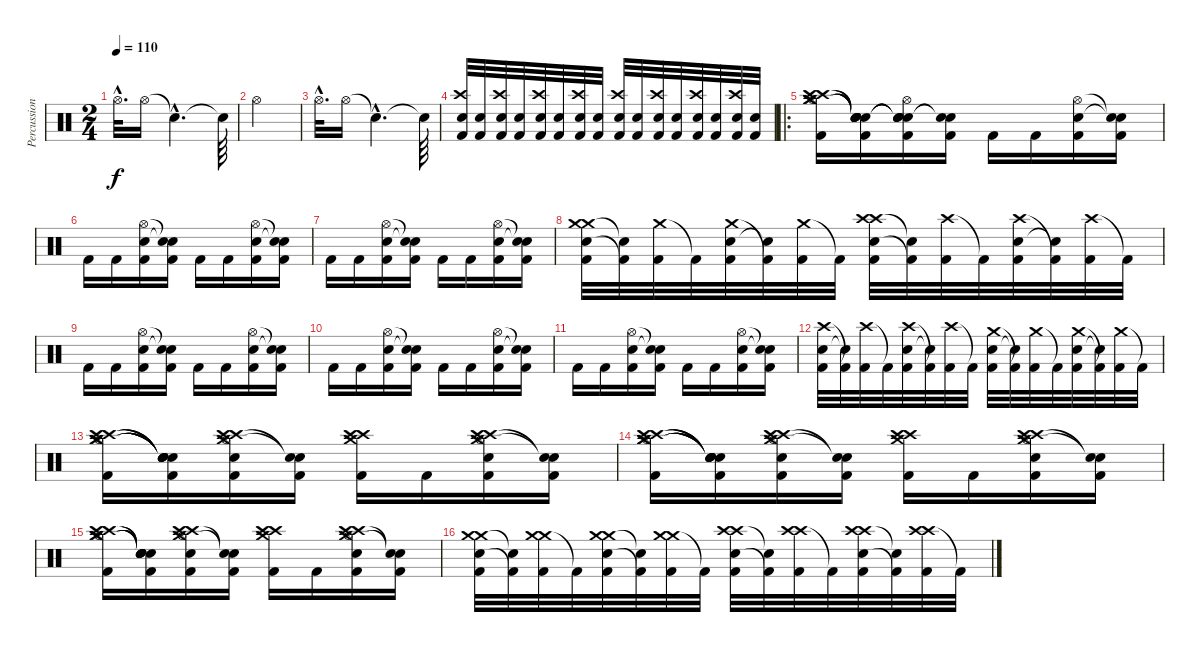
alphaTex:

\track ("Percussion" "Percussion") {instrument percussion}
\staff {score}
\articulation defaults
\ts (2 4)
\tempo 110
\clef neutral
\ks c "Hi-Hat (open)"{hac}.32{d dy f} "Hi-Hat (open)".16 "Snare (hit)"{hac t}.4{d} "Snare (hit)"{t}.64
|
"Hi-Hat (open)".2 |
"Hi-Hat (open)"{hac}.32{d} "Hi-Hat (open)".16 "Snare (hit)"{hac t}.4{d} "Snare (hit)"{t}.64 |
("Snare (hit) 2" "Crash high (hit)" "Kick (hit) 2").32 ("Snare (hit) 2" "Kick (hit) 2").32 ("Snare (hit) 2" "Crash high (hit)" "Kick (hit) 2").32 ("Snare (hit) 2" "Kick (hit) 2").32 ("Snare (hit) 2" "Crash high (hit)" "Kick (hit) 2").32 ("Snare (hit) 2" "Kick (hit) 2").32 ("Snare (hit) 2" "Crash high (hit)" "Kick (hit) 2").32 ("Snare (hit) 2" "Kick (hit) 2").32 ("Snare (hit) 2" "Crash high (hit)" "Kick (hit) 2").32 ("Snare (hit) 2" "Kick (hit) 2").32 ("Snare (hit) 2" "Crash high (hit)" "Kick (hit) 2").32 ("Snare (hit) 2" "Kick (hit) 2").32 ("Snare (hit) 2" "Crash high (hit)" "Kick (hit) 2").32 ("Snare (hit) 2" "Kick (hit) 2").32 ("Snare (hit) 2" "Crash high (hit)" "Kick (hit) 2").32 ("Snare (hit) 2" "Kick (hit) 2").32 |
\ro
("Crash high (hit)" "Crash medium (hit)" "Crash high (hit)" "Crash medium (hit)" "Hi-Hat (open)" "Kick (hit) 2").16 ("Snare (hit)"{t} "Snare (hit)"{t} "Snare (hit)"{t} "Snare (hit)"{t} "Snare (hit)"{t} "Kick (hit) 2").16 ("Snare (hit)"{t} "Snare (hit)"{t} "Snare (hit)"{t} "Hi-Hat (open)" "Snare (hit) 2" "Kick (hit) 2").16 ("Snare (hit)"{t} "Snare (hit)"{t} "Kick (hit) 2").16 "Kick (hit) 2".16 "Kick (hit) 2".16 ("Hi-Hat (open)" "Snare (hit) 2" "Kick (hit) 2").16 ("Snare (hit)"{t} "Snare (hit)"{t} "Kick (hit) 2").16 |
"Kick (hit) 2".16 "Kick (hit) 2".16 ("Hi-Hat (open)" "Snare (hit) 2" "Kick (hit) 2").16 ("Snare (hit)"{t} "Snare (hit)"{t} "Kick (hit) 2").16 "Kick (hit) 2".16 "Kick (hit) 2".16 ("Hi-Hat (open)" "Snare (hit) 2" "Kick (hit) 2").16 ("Snare (hit)"{t} "Snare (hit)"{t} "Kick (hit) 2").16 |
"Kick (hit) 2".16 "Kick (hit) 2".16 ("Hi-Hat (open)" "Snare (hit) 2" "Kick (hit) 2").16 ("Snare (hit)"{t} "Snare (hit)"{t} "Kick (hit) 2").16 "Kick (hit) 2".16 "Kick (hit) 2".16 ("Hi-Hat (open)" "Snare (hit) 2" "Kick (hit) 2").16 ("Snare (hit)"{t} "Snare (hit)"{t} "Kick (hit) 2").16 |
("Crash medium (hit)" "Snare (hit) 2" "Crash medium (hit)" "Kick (hit) 2").32 ("Snare (hit) 2"{t} "Kick (hit) 2"{t}).32 ("Crash medium (hit)" "Kick (hit) 2").32 "Kick (hit) 2"{t}.32 ("Snare (hit) 2" "Crash medium (hit)" "Kick (hit) 2").32 ("Snare (hit) 2"{t} "Kick (hit) 2"{t}).32 ("Crash medium (hit)" "Kick (hit) 2").32 "Kick (hit) 2"{t}.32 ("Crash high (hit)" "Snare (hit) 2" "Crash high (hit)" "Kick (hit) 2").32 ("Snare (hit) 2"{t} "Kick (hit) 2"{t}).32 ("Crash high (hit)" "Kick (hit) 2").32 "Kick (hit) 2"{t}.32 ("Snare (hit) 2" "Crash high (hit)" "Kick (hit) 2").32 ("Snare (hit) 2"{t} "Kick (hit) 2"{t}).32 ("Crash high (hit)" "Kick (hit) 2").32 "Kick (hit) 2"{t}.32 |
"Kick (hit) 2".16 "Kick (hit) 2".16 ("Hi-Hat (open)" "Snare (hit) 2" "Kick (hit) 2").16 ("Snare (hit)"{t} "Snare (hit)"{t} "Kick (hit) 2").16 "Kick (hit) 2".16 "Kick (hit) 2".16 ("Hi-Hat (open)" "Snare (hit) 2" "Kick (hit) 2").16 ("Snare (hit)"{t} "Snare (hit)"{t} "Kick (hit) 2").16 |
"Kick (hit) 2".16 "Kick (hit) 2".16 ("Hi-Hat (open)" "Snare (hit) 2" "Kick (hit) 2").16 ("Snare (hit)"{t} "Snare (hit)"{t} "Kick (hit) 2").16 "Kick (hit) 2".16 "Kick (hit) 2".16 ("Hi-Hat (open)" "Snare (hit) 2" "Kick (hit) 2").16 ("Snare (hit)"{t} "Snare (hit)"{t} "Kick (hit) 2").16 |
"Kick (hit) 2".16 "Kick (hit) 2".16 ("Hi-Hat (open)" "Snare (hit) 2" "Kick (hit) 2").16 ("Snare (hit)"{t} "Snare (hit)"{t} "Kick (hit) 2").16 "Kick (hit) 2".16 "Kick (hit) 2".16 ("Hi-Hat (open)" "Snare (hit) 2" "Kick (hit) 2").16 ("Snare (hit)"{t} "Snare (hit)"{t} "Kick (hit) 2").16 |
("Snare (hit) 2" "Crash high (hit)" "Kick (hit) 2").32 ("Snare (hit) 2"{t} "Kick (hit) 2"{t}).32 ("Crash high (hit)" "Kick (hit) 2").32 "Kick (hit) 2"{t}.32 ("Snare (hit) 2" "Crash high (hit)" "Kick (hit) 2").32 ("Snare (hit) 2"{t} "Kick (hit) 2"{t}).32 ("Crash high (hit)" "Kick (hit) 2").32 "Kick (hit) 2"{t}.32 ("Snare (hit) 2" "Crash medium (hit)" "Kick (hit) 2").32 ("Snare (hit) 2"{t} "Kick (hit) 2"{t}).32 ("Crash medium (hit)" "Kick (hit) 2").32 "Kick (hit) 2"{t}.32 ("Snare (hit) 2" "Crash medium (hit)" "Kick (hit) 2").32 ("Snare (hit) 2"{t} "Kick (hit) 2"{t}).32 ("Crash medium (hit)" "Kick (hit) 2").32 "Kick (hit) 2"{t}.32 |
("Crash high (hit)" "Crash medium (hit)" "Crash high (hit)" "Crash medium (hit)" "Hi-Hat (open)" "Kick (hit) 2").16 ("Snare (hit)"{t} "Snare (hit)"{t} "Snare (hit)"{t} "Snare (hit)"{t} "Snare (hit)"{t} "Kick (hit) 2").16 ("Crash high (hit)" "Crash medium (hit)" "Crash high (hit)" "Hi-Hat (open)" "Snare (hit) 2" "Kick (hit) 2").16 ("Snare (hit)"{t} "Snare (hit)"{t} "Kick (hit) 2").16 ("Crash high (hit)" "Crash medium (hit)" "Crash high (hit)" "Kick (hit) 2").16 "Kick (hit) 2".16 ("Crash high (hit)" "Crash medium (hit)" "Crash high (hit)" "Hi-Hat (open)" "Snare (hit) 2" "Kick (hit) 2").16 ("Snare (hit)"{t} "Snare (hit)"{t} "Kick (hit) 2").16 |
("Crash high (hit)" "Crash medium (hit)" "Crash high (hit)" "Crash medium (hit)" "Hi-Hat (open)" "Kick (hit) 2").16 ("Snare (hit)"{t} "Snare (hit)"{t} "Snare (hit)"{t} "Snare (hit)"{t} "Snare (hit)"{t} "Kick (hit) 2").16 ("Crash high (hit)" "Crash medium (hit)" "Crash high (hit)" "Hi-Hat (open)" "Snare (hit) 2" "Kick (hit) 2").16 ("Snare (hit)"{t} "Snare (hit)"{t} "Kick (hit) 2").16 ("Crash high (hit)" "Crash medium (hit)" "Crash high (hit)" "Kick (hit) 2").16 "Kick (hit) 2".16 ("Crash high (hit)" "Crash medium (hit)" "Crash high (hit)" "Hi-Hat (open)" "Snare (hit) 2" "Kick (hit) 2").16 ("Snare (hit)"{t} "Snare (hit)"{t} "Kick (hit) 2").16 |
("Crash high (hit)" "Crash medium (hit)" "Crash high (hit)" "Crash medium (hit)" "Hi-Hat (open)" "Kick (hit) 2").16 ("Snare (hit)"{t} "Snare (hit)"{t} "Snare (hit)"{t} "Snare (hit)"{t} "Snare (hit)"{t} "Kick (hit) 2").16 ("Crash high (hit)" "Crash medium (hit)" "Crash high (hit)" "Hi-Hat (open)" "Snare (hit) 2" "Kick (hit) 2").16 ("Snare (hit)"{t} "Snare (hit)"{t} "Kick (hit) 2").16 ("Crash high (hit)" "Crash medium (hit)" "Crash high (hit)" "Kick (hit) 2").16 "Kick (hit) 2".16 ("Crash high (hit)" "Crash medium (hit)" "Crash high (hit)" "Hi-Hat (open)" "Snare (hit) 2" "Kick (hit) 2").16 ("Snare (hit)"{t} "Snare (hit)"{t} "Kick (hit) 2").16 |
("Crash medium (hit)" "Snare (hit) 2" "Crash medium (hit)" "Kick (hit) 2").32 ("Snare (hit) 2"{t} "Kick (hit) 2"{t}).32 ("Crash medium (hit)" "Crash medium (hit)" "Kick (hit) 2").32 "Kick (hit) 2"{t}.32 ("Crash medium (hit)" "Snare (hit) 2" "Crash medium (hit)" "Kick (hit) 2").32 ("Snare (hit) 2"{t} "Kick (hit) 2"{t}).32 ("Crash medium (hit)" "Crash medium (hit)" "Kick (hit) 2").32 "Kick (hit) 2"{t}.32 ("Crash high (hit)" "Snare (hit) 2" "Crash high (hit)" "Kick (hit) 2").32 ("Snare (hit) 2"{t} "Kick (hit) 2"{t}).32 ("Crash high (hit)" "Crash high (hit)" "Kick (hit) 2").32 "Kick (hit) 2"{t}.32 ("Crash high (hit)" "Snare (hit) 2" "Crash high (hit)" "Kick (hit) 2").32 ("Snare (hit) 2"{t} "Kick (hit) 2"{t}).32 ("Crash high (hit)" "Crash high (hit)" "Kick (hit) 2").32 "Kick (hit) 2"{t}.32
